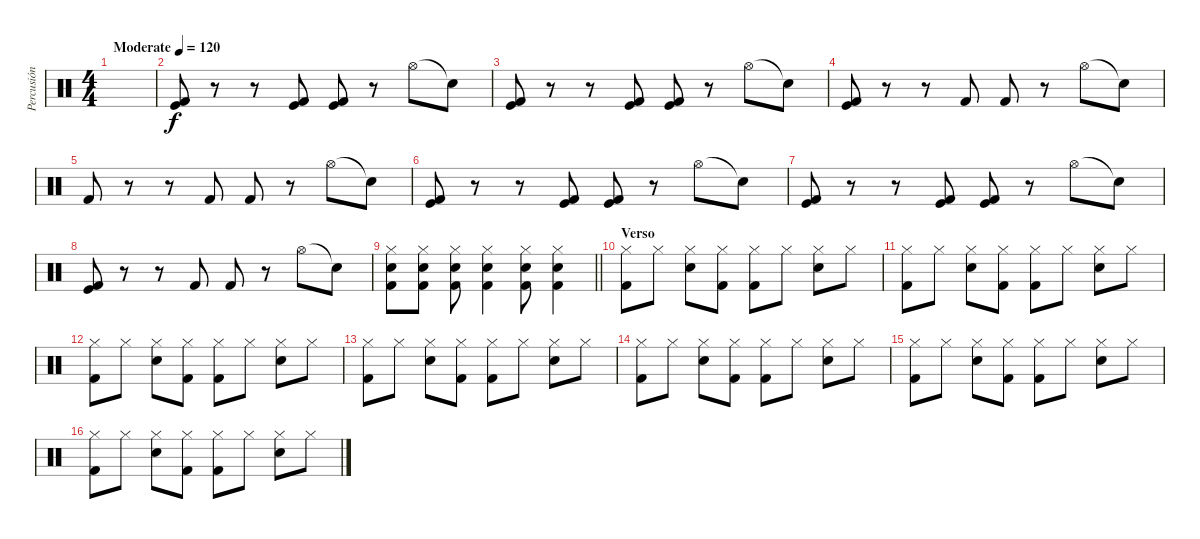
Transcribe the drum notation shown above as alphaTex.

\track ("Percusión" "Percusión") {instrument percussion}
\staff {score}
\articulation defaults
\ts (4 4)
\tempo (120 "Moderate")
\clef neutral
\ks c
|
("Kick (hit)" "Kick (hit) 2").8 r.8 r.8 ("Kick (hit)" "Kick (hit) 2").8 ("Kick (hit)" "Kick (hit) 2").8 r.8 "Hi-Hat (open)".8 "Snare (hit)"{t}.8 |
("Kick (hit)" "Kick (hit) 2").8 r.8 r.8 ("Kick (hit)" "Kick (hit) 2").8 ("Kick (hit)" "Kick (hit) 2").8 r.8 "Hi-Hat (open)".8 "Snare (hit)"{t}.8 |
("Kick (hit)" "Kick (hit) 2").8 r.8 r.8 "Kick (hit) 2".8 "Kick (hit) 2".8 r.8 "Hi-Hat (open)".8 "Snare (hit)"{t}.8 |
"Kick (hit) 2".8 r.8 r.8 "Kick (hit) 2".8 "Kick (hit) 2".8 r.8 "Hi-Hat (open)".8 "Snare (hit)"{t}.8 |
("Kick (hit)" "Kick (hit) 2").8 r.8 r.8 ("Kick (hit)" "Kick (hit) 2").8 ("Kick (hit)" "Kick (hit) 2").8 r.8 "Hi-Hat (open)".8 "Snare (hit)"{t}.8 |
("Kick (hit)" "Kick (hit) 2").8 r.8 r.8 ("Kick (hit)" "Kick (hit) 2").8 ("Kick (hit)" "Kick (hit) 2").8 r.8 "Hi-Hat (open)".8 "Snare (hit)"{t}.8 |
("Kick (hit)" "Kick (hit) 2").8 r.8 r.8 "Kick (hit) 2".8 "Kick (hit) 2".8 r.8 "Hi-Hat (open)".8 "Snare (hit)"{t}.8 |
\barLineRight lightlight
("Kick (hit) 2" "Hi-Hat (closed)" "Snare (hit) 2").8 ("Kick (hit) 2" "Hi-Hat (closed)" "Snare (hit) 2").8 ("Kick (hit) 2" "Hi-Hat (closed)" "Snare (hit) 2").8 ("Kick (hit) 2" "Hi-Hat (closed)" "Snare (hit) 2").4 ("Kick (hit) 2" "Hi-Hat (closed)" "Snare (hit) 2").8 ("Kick (hit) 2" "Hi-Hat (closed)" "Snare (hit) 2").4 |
\section ("" "Verso")
("Hi-Hat (closed)" "Kick (hit) 2").8 "Hi-Hat (closed)".8 ("Hi-Hat (closed)" "Snare (hit) 2").8 ("Hi-Hat (closed)" "Kick (hit) 2").8 ("Hi-Hat (closed)" "Kick (hit) 2").8 "Hi-Hat (closed)".8 ("Hi-Hat (closed)" "Snare (hit) 2").8 "Hi-Hat (closed)".8 |
("Hi-Hat (closed)" "Kick (hit) 2").8 "Hi-Hat (closed)".8 ("Hi-Hat (closed)" "Snare (hit) 2").8 ("Hi-Hat (closed)" "Kick (hit) 2").8 ("Hi-Hat (closed)" "Kick (hit) 2").8 "Hi-Hat (closed)".8 ("Hi-Hat (closed)" "Snare (hit) 2").8 "Hi-Hat (closed)".8 |
("Hi-Hat (closed)" "Kick (hit) 2").8 "Hi-Hat (closed)".8 ("Hi-Hat (closed)" "Snare (hit) 2").8 ("Hi-Hat (closed)" "Kick (hit) 2").8 ("Hi-Hat (closed)" "Kick (hit) 2").8 "Hi-Hat (closed)".8 ("Hi-Hat (closed)" "Snare (hit) 2").8 "Hi-Hat (closed)".8 |
("Hi-Hat (closed)" "Kick (hit) 2").8 "Hi-Hat (closed)".8 ("Hi-Hat (closed)" "Snare (hit) 2").8 ("Hi-Hat (closed)" "Kick (hit) 2").8 ("Hi-Hat (closed)" "Kick (hit) 2").8 "Hi-Hat (closed)".8 ("Hi-Hat (closed)" "Snare (hit) 2").8 "Hi-Hat (closed)".8 |
("Hi-Hat (closed)" "Kick (hit) 2").8 "Hi-Hat (closed)".8 ("Hi-Hat (closed)" "Snare (hit) 2").8 ("Hi-Hat (closed)" "Kick (hit) 2").8 ("Hi-Hat (closed)" "Kick (hit) 2").8 "Hi-Hat (closed)".8 ("Hi-Hat (closed)" "Snare (hit) 2").8 "Hi-Hat (closed)".8 |
("Hi-Hat (closed)" "Kick (hit) 2").8 "Hi-Hat (closed)".8 ("Hi-Hat (closed)" "Snare (hit) 2").8 ("Hi-Hat (closed)" "Kick (hit) 2").8 ("Hi-Hat (closed)" "Kick (hit) 2").8 "Hi-Hat (closed)".8 ("Hi-Hat (closed)" "Snare (hit) 2").8 "Hi-Hat (closed)".8 |
("Hi-Hat (closed)" "Kick (hit) 2").8 "Hi-Hat (closed)".8 ("Hi-Hat (closed)" "Snare (hit) 2").8 ("Hi-Hat (closed)" "Kick (hit) 2").8 ("Hi-Hat (closed)" "Kick (hit) 2").8 "Hi-Hat (closed)".8 ("Hi-Hat (closed)" "Snare (hit) 2").8 "Hi-Hat (closed)".8
